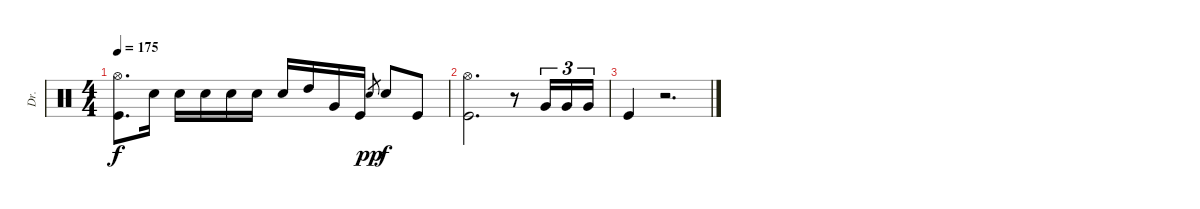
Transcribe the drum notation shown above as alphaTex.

\track ("Dr." "Dr.") {instrument percussion}
\staff {score}
\articulation defaults
\ts (4 4)
\tempo 175
\clef neutral
\ks c
("Hi-Hat (open)" "Kick (hit)").8{d dy f} "Snare (hit) 2".16 "Snare (hit) 2".16 "Snare (hit) 2".16 "Snare (hit) 2".16 "Snare (hit) 2".16 "Snare (hit) 2".16 "High Tom (hit)".16 "Very Low Tom (hit)".16 "Kick (hit)".16 "Snare (hit) 2".8{gr dy pp} "Snare (hit) 2".8{dy f} "Kick (hit)".8 |
("Hi-Hat (open)" "Kick (hit)").2{d} r.8 "Very Low Tom (hit)".16{tu (3 2)} "Very Low Tom (hit)".16{tu (3 2)} "Very Low Tom (hit)".16{tu (3 2)} |
"Kick (hit)".4 r.2{d}
